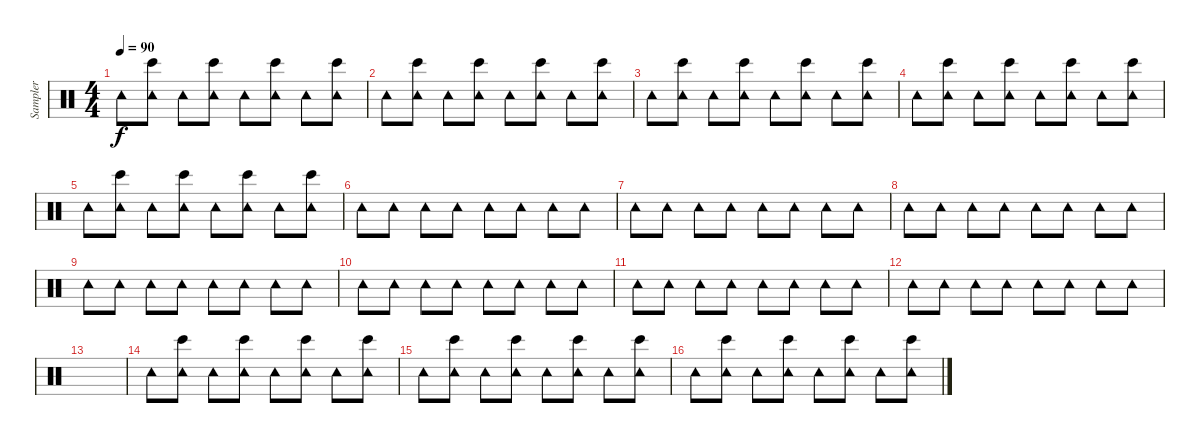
\track ("Sampler" "Sampler") {instrument percussion}
\staff {score}
\articulation defaults
\ts (4 4)
\tempo 90
\clef neutral
\ks c "Tambourine (hit)".8{dy f}
("Tambourine (hit)" "Bongo High (hit)").8 "Tambourine (hit)".8 ("Tambourine (hit)" "Bongo High (hit)").8 "Tambourine (hit)".8 ("Tambourine (hit)" "Bongo High (hit)").8 "Tambourine (hit)".8 ("Tambourine (hit)" "Bongo High (hit)").8 |
"Tambourine (hit)".8 ("Tambourine (hit)" "Bongo High (hit)").8 "Tambourine (hit)".8 ("Tambourine (hit)" "Bongo High (hit)").8 "Tambourine (hit)".8 ("Tambourine (hit)" "Bongo High (hit)").8 "Tambourine (hit)".8 ("Tambourine (hit)" "Bongo High (hit)").8 |
"Tambourine (hit)".8 ("Tambourine (hit)" "Bongo High (hit)").8 "Tambourine (hit)".8 ("Tambourine (hit)" "Bongo High (hit)").8 "Tambourine (hit)".8 ("Tambourine (hit)" "Bongo High (hit)").8 "Tambourine (hit)".8 ("Tambourine (hit)" "Bongo High (hit)").8 |
"Tambourine (hit)".8 ("Tambourine (hit)" "Bongo High (hit)").8 "Tambourine (hit)".8 ("Tambourine (hit)" "Bongo High (hit)").8 "Tambourine (hit)".8 ("Tambourine (hit)" "Bongo High (hit)").8 "Tambourine (hit)".8 ("Tambourine (hit)" "Bongo High (hit)").8 |
"Tambourine (hit)".8 ("Tambourine (hit)" "Bongo High (hit)").8 "Tambourine (hit)".8 ("Tambourine (hit)" "Bongo High (hit)").8 "Tambourine (hit)".8 ("Tambourine (hit)" "Bongo High (hit)").8 "Tambourine (hit)".8 ("Tambourine (hit)" "Bongo High (hit)").8 |
"Tambourine (hit)".8 "Tambourine (hit)".8 "Tambourine (hit)".8 "Tambourine (hit)".8 "Tambourine (hit)".8 "Tambourine (hit)".8 "Tambourine (hit)".8 "Tambourine (hit)".8 |
"Tambourine (hit)".8 "Tambourine (hit)".8 "Tambourine (hit)".8 "Tambourine (hit)".8 "Tambourine (hit)".8 "Tambourine (hit)".8 "Tambourine (hit)".8 "Tambourine (hit)".8 |
"Tambourine (hit)".8 "Tambourine (hit)".8 "Tambourine (hit)".8 "Tambourine (hit)".8 "Tambourine (hit)".8 "Tambourine (hit)".8 "Tambourine (hit)".8 "Tambourine (hit)".8 |
"Tambourine (hit)".8 "Tambourine (hit)".8 "Tambourine (hit)".8 "Tambourine (hit)".8 "Tambourine (hit)".8 "Tambourine (hit)".8 "Tambourine (hit)".8 "Tambourine (hit)".8 |
"Tambourine (hit)".8 "Tambourine (hit)".8 "Tambourine (hit)".8 "Tambourine (hit)".8 "Tambourine (hit)".8 "Tambourine (hit)".8 "Tambourine (hit)".8 "Tambourine (hit)".8 |
"Tambourine (hit)".8 "Tambourine (hit)".8 "Tambourine (hit)".8 "Tambourine (hit)".8 "Tambourine (hit)".8 "Tambourine (hit)".8 "Tambourine (hit)".8 "Tambourine (hit)".8 |
"Tambourine (hit)".8 "Tambourine (hit)".8 "Tambourine (hit)".8 "Tambourine (hit)".8 "Tambourine (hit)".8 "Tambourine (hit)".8 "Tambourine (hit)".8 "Tambourine (hit)".8 |
|
"Tambourine (hit)".8 ("Tambourine (hit)" "Bongo High (hit)").8 "Tambourine (hit)".8 ("Tambourine (hit)" "Bongo High (hit)").8 "Tambourine (hit)".8 ("Tambourine (hit)" "Bongo High (hit)").8 "Tambourine (hit)".8 ("Tambourine (hit)" "Bongo High (hit)").8 |
"Tambourine (hit)".8 ("Tambourine (hit)" "Bongo High (hit)").8 "Tambourine (hit)".8 ("Tambourine (hit)" "Bongo High (hit)").8 "Tambourine (hit)".8 ("Tambourine (hit)" "Bongo High (hit)").8 "Tambourine (hit)".8 ("Tambourine (hit)" "Bongo High (hit)").8 |
"Tambourine (hit)".8 ("Tambourine (hit)" "Bongo High (hit)").8 "Tambourine (hit)".8 ("Tambourine (hit)" "Bongo High (hit)").8 "Tambourine (hit)".8 ("Tambourine (hit)" "Bongo High (hit)").8 "Tambourine (hit)".8 ("Tambourine (hit)" "Bongo High (hit)").8
